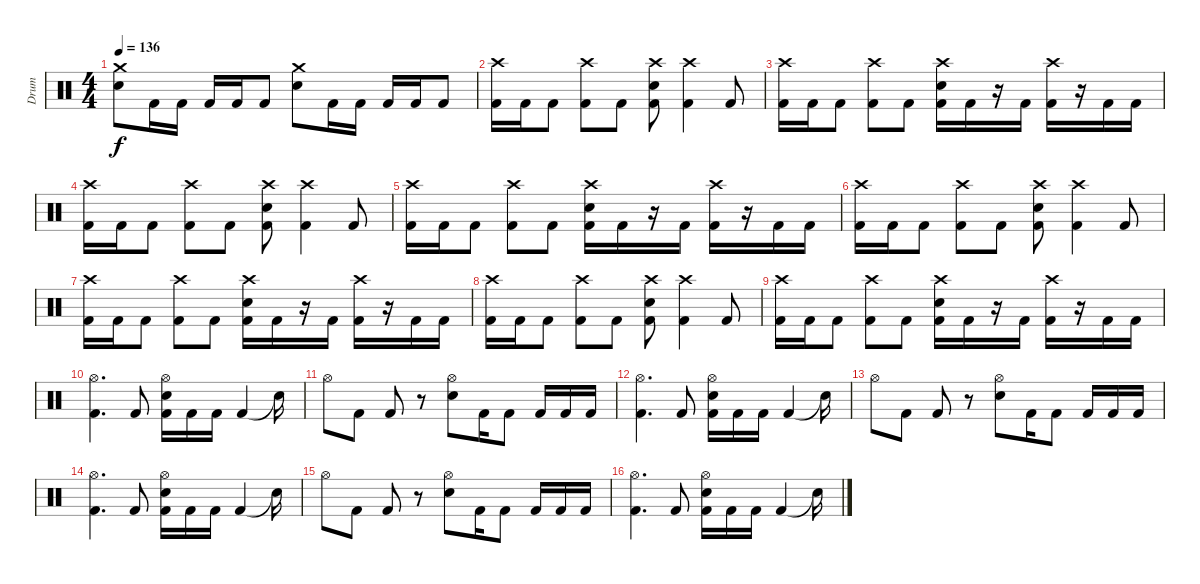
\track ("Drum" "Drum") {instrument percussion}
\staff {score}
\articulation defaults
\ts (4 4)
\tempo 136
\clef neutral
\ks c
("Crash medium (hit)" "Electric Snare (hit)").8{dy f} "Kick (hit) 2".16 "Kick (hit) 2".16 "Kick (hit) 2".16 "Kick (hit) 2".16 "Kick (hit) 2".8 ("Crash medium (hit)" "Electric Snare (hit)").8 "Kick (hit) 2".16 "Kick (hit) 2".16 "Kick (hit) 2".16 "Kick (hit) 2".16 "Kick (hit) 2".8 |
("Crash high (hit)" "Kick (hit) 2").16 "Kick (hit) 2".16 "Kick (hit) 2".8 ("Crash high (hit)" "Kick (hit) 2").8 "Kick (hit) 2".8 ("Crash high (hit)" "Electric Snare (hit)" "Kick (hit) 2").8 ("Crash high (hit)" "Kick (hit) 2").4 "Kick (hit) 2".8 |
("Crash high (hit)" "Kick (hit) 2").16 "Kick (hit) 2".16 "Kick (hit) 2".8 ("Crash high (hit)" "Kick (hit) 2").8 "Kick (hit) 2".8 ("Crash high (hit)" "Electric Snare (hit)" "Kick (hit) 2").16 "Kick (hit) 2".16 r.16 "Kick (hit) 2".16 ("Crash high (hit)" "Kick (hit) 2").16 r.16 "Kick (hit) 2".16 "Kick (hit) 2".16 |
("Crash high (hit)" "Kick (hit) 2").16 "Kick (hit) 2".16 "Kick (hit) 2".8 ("Crash high (hit)" "Kick (hit) 2").8 "Kick (hit) 2".8 ("Crash high (hit)" "Electric Snare (hit)" "Kick (hit) 2").8 ("Crash high (hit)" "Kick (hit) 2").4 "Kick (hit) 2".8 |
("Crash high (hit)" "Kick (hit) 2").16 "Kick (hit) 2".16 "Kick (hit) 2".8 ("Crash high (hit)" "Kick (hit) 2").8 "Kick (hit) 2".8 ("Crash high (hit)" "Electric Snare (hit)" "Kick (hit) 2").16 "Kick (hit) 2".16 r.16 "Kick (hit) 2".16 ("Crash high (hit)" "Kick (hit) 2").16 r.16 "Kick (hit) 2".16 "Kick (hit) 2".16 |
("Crash high (hit)" "Kick (hit) 2").16 "Kick (hit) 2".16 "Kick (hit) 2".8 ("Crash high (hit)" "Kick (hit) 2").8 "Kick (hit) 2".8 ("Crash high (hit)" "Electric Snare (hit)" "Kick (hit) 2").8 ("Crash high (hit)" "Kick (hit) 2").4 "Kick (hit) 2".8 |
("Crash high (hit)" "Kick (hit) 2").16 "Kick (hit) 2".16 "Kick (hit) 2".8 ("Crash high (hit)" "Kick (hit) 2").8 "Kick (hit) 2".8 ("Crash high (hit)" "Electric Snare (hit)" "Kick (hit) 2").16 "Kick (hit) 2".16 r.16 "Kick (hit) 2".16 ("Crash high (hit)" "Kick (hit) 2").16 r.16 "Kick (hit) 2".16 "Kick (hit) 2".16 |
("Crash high (hit)" "Kick (hit) 2").16 "Kick (hit) 2".16 "Kick (hit) 2".8 ("Crash high (hit)" "Kick (hit) 2").8 "Kick (hit) 2".8 ("Crash high (hit)" "Electric Snare (hit)" "Kick (hit) 2").8 ("Crash high (hit)" "Kick (hit) 2").4 "Kick (hit) 2".8 |
("Crash high (hit)" "Kick (hit) 2").16 "Kick (hit) 2".16 "Kick (hit) 2".8 ("Crash high (hit)" "Kick (hit) 2").8 "Kick (hit) 2".8 ("Crash high (hit)" "Electric Snare (hit)" "Kick (hit) 2").16 "Kick (hit) 2".16 r.16 "Kick (hit) 2".16 ("Crash high (hit)" "Kick (hit) 2").16 r.16 "Kick (hit) 2".16 "Kick (hit) 2".16 |
("Hi-Hat (open)" "Kick (hit) 2").4{d} "Kick (hit) 2".8 ("Hi-Hat (open)" "Electric Snare (hit)" "Kick (hit) 2").16 "Kick (hit) 2".16 "Kick (hit) 2".16 "Kick (hit) 2".4 "Snare (hit)"{t}.16 |
"Hi-Hat (open)".8 "Kick (hit) 2".8 "Kick (hit) 2".8 r.8 ("Hi-Hat (open)" "Electric Snare (hit)").8 "Kick (hit) 2".16 "Kick (hit) 2".8 "Kick (hit) 2".16 "Kick (hit) 2".16 "Kick (hit) 2".16 |
("Hi-Hat (open)" "Kick (hit) 2").4{d} "Kick (hit) 2".8 ("Hi-Hat (open)" "Electric Snare (hit)" "Kick (hit) 2").16 "Kick (hit) 2".16 "Kick (hit) 2".16 "Kick (hit) 2".4 "Snare (hit)"{t}.16 |
"Hi-Hat (open)".8 "Kick (hit) 2".8 "Kick (hit) 2".8 r.8 ("Hi-Hat (open)" "Electric Snare (hit)").8 "Kick (hit) 2".16 "Kick (hit) 2".8 "Kick (hit) 2".16 "Kick (hit) 2".16 "Kick (hit) 2".16 |
("Hi-Hat (open)" "Kick (hit) 2").4{d} "Kick (hit) 2".8 ("Hi-Hat (open)" "Electric Snare (hit)" "Kick (hit) 2").16 "Kick (hit) 2".16 "Kick (hit) 2".16 "Kick (hit) 2".4 "Snare (hit)"{t}.16 |
"Hi-Hat (open)".8 "Kick (hit) 2".8 "Kick (hit) 2".8 r.8 ("Hi-Hat (open)" "Electric Snare (hit)").8 "Kick (hit) 2".16 "Kick (hit) 2".8 "Kick (hit) 2".16 "Kick (hit) 2".16 "Kick (hit) 2".16 |
("Hi-Hat (open)" "Kick (hit) 2").4{d} "Kick (hit) 2".8 ("Hi-Hat (open)" "Electric Snare (hit)" "Kick (hit) 2").16 "Kick (hit) 2".16 "Kick (hit) 2".16 "Kick (hit) 2".4 "Snare (hit)"{t}.16
